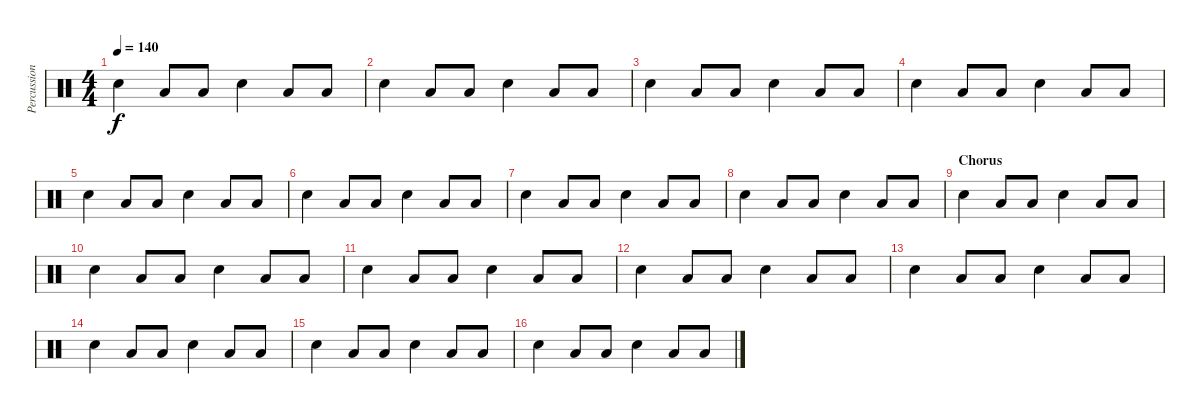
\track ("Percussion" "Percussion") {instrument percussion}
\staff {score}
\articulation defaults
\ts (4 4)
\tempo 140
\clef neutral
\ks c "Electric Snare (hit)".4{dy f} "Low Floor Tom (hit)".8 "Low Floor Tom (hit)".8 "Electric Snare (hit)".4 "Low Floor Tom (hit)".8 "Low Floor Tom (hit)".8
|
"Electric Snare (hit)".4 "Low Floor Tom (hit)".8 "Low Floor Tom (hit)".8 "Electric Snare (hit)".4 "Low Floor Tom (hit)".8 "Low Floor Tom (hit)".8 |
"Electric Snare (hit)".4 "Low Floor Tom (hit)".8 "Low Floor Tom (hit)".8 "Electric Snare (hit)".4 "Low Floor Tom (hit)".8 "Low Floor Tom (hit)".8 |
"Electric Snare (hit)".4 "Low Floor Tom (hit)".8 "Low Floor Tom (hit)".8 "Electric Snare (hit)".4 "Low Floor Tom (hit)".8 "Low Floor Tom (hit)".8 |
"Electric Snare (hit)".4 "Low Floor Tom (hit)".8 "Low Floor Tom (hit)".8 "Electric Snare (hit)".4 "Low Floor Tom (hit)".8 "Low Floor Tom (hit)".8 |
"Electric Snare (hit)".4 "Low Floor Tom (hit)".8 "Low Floor Tom (hit)".8 "Electric Snare (hit)".4 "Low Floor Tom (hit)".8 "Low Floor Tom (hit)".8 |
"Electric Snare (hit)".4 "Low Floor Tom (hit)".8 "Low Floor Tom (hit)".8 "Electric Snare (hit)".4 "Low Floor Tom (hit)".8 "Low Floor Tom (hit)".8 |
"Electric Snare (hit)".4 "Low Floor Tom (hit)".8 "Low Floor Tom (hit)".8 "Electric Snare (hit)".4 "Low Floor Tom (hit)".8 "Low Floor Tom (hit)".8 |
\section ("" "Chorus")
"Electric Snare (hit)".4 "Low Floor Tom (hit)".8 "Low Floor Tom (hit)".8 "Electric Snare (hit)".4 "Low Floor Tom (hit)".8 "Low Floor Tom (hit)".8 |
"Electric Snare (hit)".4 "Low Floor Tom (hit)".8 "Low Floor Tom (hit)".8 "Electric Snare (hit)".4 "Low Floor Tom (hit)".8 "Low Floor Tom (hit)".8 |
"Electric Snare (hit)".4 "Low Floor Tom (hit)".8 "Low Floor Tom (hit)".8 "Electric Snare (hit)".4 "Low Floor Tom (hit)".8 "Low Floor Tom (hit)".8 |
"Electric Snare (hit)".4 "Low Floor Tom (hit)".8 "Low Floor Tom (hit)".8 "Electric Snare (hit)".4 "Low Floor Tom (hit)".8 "Low Floor Tom (hit)".8 |
"Electric Snare (hit)".4 "Low Floor Tom (hit)".8 "Low Floor Tom (hit)".8 "Electric Snare (hit)".4 "Low Floor Tom (hit)".8 "Low Floor Tom (hit)".8 |
"Electric Snare (hit)".4 "Low Floor Tom (hit)".8 "Low Floor Tom (hit)".8 "Electric Snare (hit)".4 "Low Floor Tom (hit)".8 "Low Floor Tom (hit)".8 |
"Electric Snare (hit)".4 "Low Floor Tom (hit)".8 "Low Floor Tom (hit)".8 "Electric Snare (hit)".4 "Low Floor Tom (hit)".8 "Low Floor Tom (hit)".8 |
"Electric Snare (hit)".4 "Low Floor Tom (hit)".8 "Low Floor Tom (hit)".8 "Electric Snare (hit)".4 "Low Floor Tom (hit)".8 "Low Floor Tom (hit)".8
